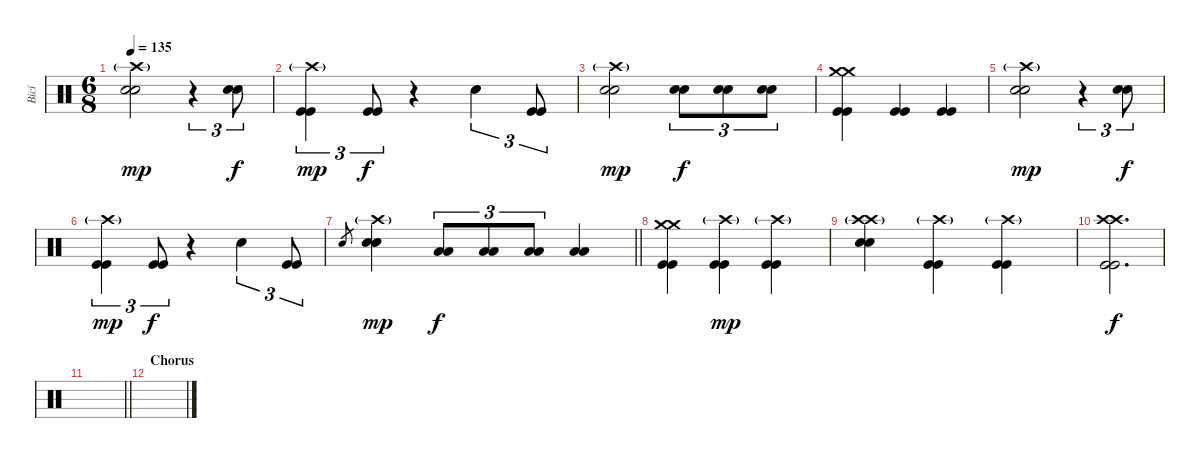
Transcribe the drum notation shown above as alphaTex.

\track ("Bicí" "Bicí") {instrument percussion}
\staff {score}
\articulation defaults
\ts (6 8)
\tempo 135
\clef neutral
\ks c
("Crash high (hit)"{g} "Electric Snare (hit)" "Electric Snare (hit)").2{dy mp} r.4{tu (3 2)} ("Electric Snare (hit)" "Electric Snare (hit)").8{tu (3 2) dy f} |
("Crash high (hit)"{g} "Kick (hit)" "Kick (hit)").4{tu (3 2) dy mp} ("Kick (hit)" "Kick (hit)").8{tu (3 2) dy f} r.4 "Snare (hit)".4{tu (3 2)} ("Kick (hit)" "Kick (hit)").8{tu (3 2)} |
("Crash high (hit)"{g} "Electric Snare (hit)" "Electric Snare (hit)").2{dy mp} ("Electric Snare (hit)" "Electric Snare (hit)").8{tu (3 2) dy f} ("Electric Snare (hit)" "Electric Snare (hit)").8{tu (3 2)} ("Electric Snare (hit)" "Electric Snare (hit)").8{tu (3 2)} |
("Crash medium (hit)" "Crash medium (hit)" "Kick (hit)" "Kick (hit)").4 ("Kick (hit)" "Kick (hit)").4 ("Kick (hit)" "Kick (hit)").4 |
("Crash high (hit)"{g} "Electric Snare (hit)" "Electric Snare (hit)").2{dy mp} r.4{tu (3 2)} ("Electric Snare (hit)" "Electric Snare (hit)").8{tu (3 2) dy f} |
("Crash high (hit)"{g} "Kick (hit)" "Kick (hit)").4{tu (3 2) dy mp} ("Kick (hit)" "Kick (hit)").8{tu (3 2) dy f} r.4 "Snare (hit)".4{tu (3 2)} ("Kick (hit)" "Kick (hit)").8{tu (3 2)} |
\barLineRight lightlight "Electric Snare (hit)".8{gr}
("Crash high (hit)"{g} "Electric Snare (hit)" "Electric Snare (hit)").4{dy mp} ("Low Tom (hit)" "Low Tom (hit)").8{tu (3 2) dy f} ("Low Tom (hit)" "Low Tom (hit)").8{tu (3 2)} ("Low Tom (hit)" "Low Tom (hit)").8{tu (3 2)} ("Low Tom (hit)" "Low Tom (hit)").4 |
("Crash medium (hit)" "Crash medium (hit)" "Kick (hit)" "Kick (hit)").4 ("Crash high (hit)"{g} "Kick (hit)" "Kick (hit)").4{dy mp} ("Crash high (hit)"{g} "Kick (hit)" "Kick (hit)").4 |
("Crash high (hit)"{g} "Crash high (hit)" "Electric Snare (hit)" "Electric Snare (hit)").4 ("Crash high (hit)"{g} "Kick (hit)" "Kick (hit)").4 ("Crash high (hit)"{g} "Kick (hit)" "Kick (hit)").4 |
("Crash high (hit)" "Crash high (hit)" "Kick (hit)" "Kick (hit)").2{d dy f} |
\barLineRight lightlight
|
\section ("" "Chorus")
